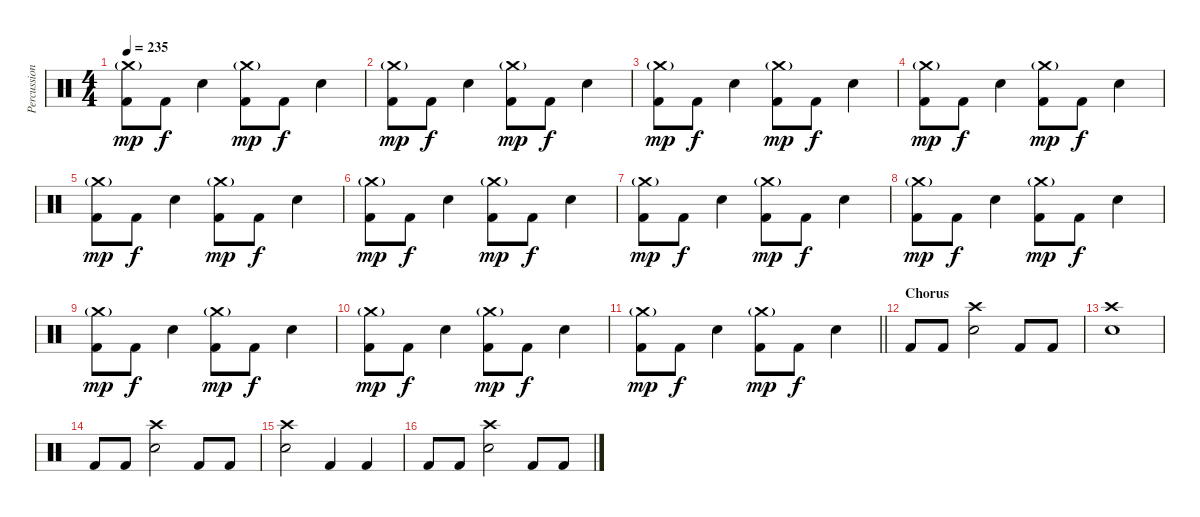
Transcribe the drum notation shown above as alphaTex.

\track ("Percussion" "Percussion") {instrument percussion}
\staff {score}
\articulation defaults
\ts (4 4)
\tempo 235
\clef neutral
\ks c
("Crash medium (hit)"{g} "Kick (hit) 2").8{dy mp} "Kick (hit) 2".8{dy f} "Electric Snare (hit)".4 ("Crash medium (hit)"{g} "Kick (hit) 2").8{dy mp} "Kick (hit) 2".8{dy f} "Electric Snare (hit)".4 |
("Crash medium (hit)"{g} "Kick (hit) 2").8{dy mp} "Kick (hit) 2".8{dy f} "Electric Snare (hit)".4 ("Crash medium (hit)"{g} "Kick (hit) 2").8{dy mp} "Kick (hit) 2".8{dy f} "Electric Snare (hit)".4 |
("Crash medium (hit)"{g} "Kick (hit) 2").8{dy mp} "Kick (hit) 2".8{dy f} "Electric Snare (hit)".4 ("Crash medium (hit)"{g} "Kick (hit) 2").8{dy mp} "Kick (hit) 2".8{dy f} "Electric Snare (hit)".4 |
("Crash medium (hit)"{g} "Kick (hit) 2").8{dy mp} "Kick (hit) 2".8{dy f} "Electric Snare (hit)".4 ("Crash medium (hit)"{g} "Kick (hit) 2").8{dy mp} "Kick (hit) 2".8{dy f} "Electric Snare (hit)".4 |
("Crash medium (hit)"{g} "Kick (hit) 2").8{dy mp} "Kick (hit) 2".8{dy f} "Electric Snare (hit)".4 ("Crash medium (hit)"{g} "Kick (hit) 2").8{dy mp} "Kick (hit) 2".8{dy f} "Electric Snare (hit)".4 |
("Crash medium (hit)"{g} "Kick (hit) 2").8{dy mp} "Kick (hit) 2".8{dy f} "Electric Snare (hit)".4 ("Crash medium (hit)"{g} "Kick (hit) 2").8{dy mp} "Kick (hit) 2".8{dy f} "Electric Snare (hit)".4 |
("Crash medium (hit)"{g} "Kick (hit) 2").8{dy mp} "Kick (hit) 2".8{dy f} "Electric Snare (hit)".4 ("Crash medium (hit)"{g} "Kick (hit) 2").8{dy mp} "Kick (hit) 2".8{dy f} "Electric Snare (hit)".4 |
("Crash medium (hit)"{g} "Kick (hit) 2").8{dy mp} "Kick (hit) 2".8{dy f} "Electric Snare (hit)".4 ("Crash medium (hit)"{g} "Kick (hit) 2").8{dy mp} "Kick (hit) 2".8{dy f} "Electric Snare (hit)".4 |
("Crash medium (hit)"{g} "Kick (hit) 2").8{dy mp} "Kick (hit) 2".8{dy f} "Electric Snare (hit)".4 ("Crash medium (hit)"{g} "Kick (hit) 2").8{dy mp} "Kick (hit) 2".8{dy f} "Electric Snare (hit)".4 |
("Crash medium (hit)"{g} "Kick (hit) 2").8{dy mp} "Kick (hit) 2".8{dy f} "Electric Snare (hit)".4 ("Crash medium (hit)"{g} "Kick (hit) 2").8{dy mp} "Kick (hit) 2".8{dy f} "Electric Snare (hit)".4 |
\barLineRight lightlight
("Crash medium (hit)"{g} "Kick (hit) 2").8{dy mp} "Kick (hit) 2".8{dy f} "Electric Snare (hit)".4 ("Crash medium (hit)"{g} "Kick (hit) 2").8{dy mp} "Kick (hit) 2".8{dy f} "Electric Snare (hit)".4 |
\section ("" "Chorus")
"Kick (hit) 2".8 "Kick (hit) 2".8 ("Electric Snare (hit)" "Crash high (hit)").2 "Kick (hit) 2".8 "Kick (hit) 2".8 |
("Electric Snare (hit)" "Crash high (hit)").1 |
"Kick (hit) 2".8 "Kick (hit) 2".8 ("Electric Snare (hit)" "Crash high (hit)").2 "Kick (hit) 2".8 "Kick (hit) 2".8 |
("Electric Snare (hit)" "Crash high (hit)").2 "Kick (hit) 2".4 "Kick (hit) 2".4 |
"Kick (hit) 2".8 "Kick (hit) 2".8 ("Crash high (hit)" "Electric Snare (hit)").2 "Kick (hit) 2".8 "Kick (hit) 2".8
